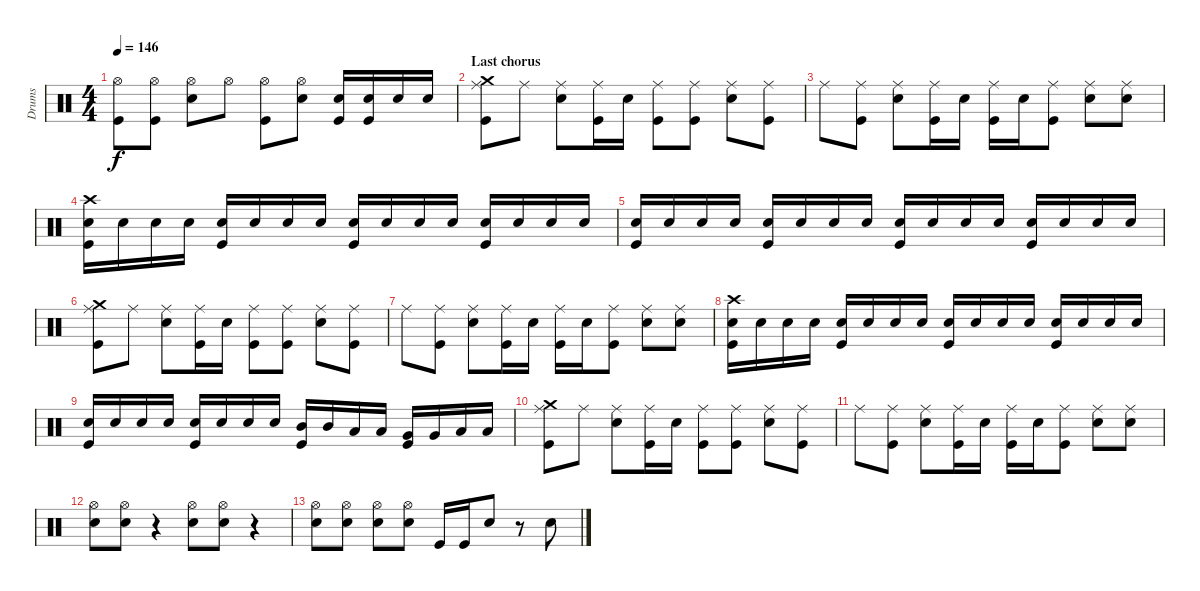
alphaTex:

\track ("Drums" "Drums") {instrument percussion}
\staff {score}
\articulation defaults
\ts (4 4)
\tempo 146
\clef neutral
\ks c
("Hi-Hat (open)" "Kick (hit)").8{dy f} ("Hi-Hat (open)" "Kick (hit)").8 ("Hi-Hat (open)" "Snare (hit) 2").8 "Hi-Hat (open)".8 ("Hi-Hat (open)" "Kick (hit)").8 ("Hi-Hat (open)" "Snare (hit) 2").8 ("Snare (hit) 2" "Kick (hit)").16 ("Snare (hit) 2" "Kick (hit)").16 "Snare (hit) 2".16 "Snare (hit) 2".16 |
\section ("" "Last chorus")
("Ride (middle)" "Crash medium (hit)" "Kick (hit)").8 "Ride (middle)".8 ("Ride (middle)" "Snare (hit) 2").8 ("Ride (middle)" "Kick (hit)").16 "Snare (hit) 2".16 ("Ride (middle)" "Kick (hit)").8 ("Ride (middle)" "Kick (hit)").8 ("Ride (middle)" "Snare (hit) 2").8 ("Ride (middle)" "Kick (hit)").8 |
"Ride (middle)".8 ("Ride (middle)" "Kick (hit)").8 ("Ride (middle)" "Snare (hit) 2").8 ("Ride (middle)" "Kick (hit)").16 "Snare (hit) 2".16 ("Ride (middle)" "Kick (hit)").16 "Snare (hit) 2".16 ("Ride (middle)" "Kick (hit)").8 ("Ride (middle)" "Snare (hit) 2").8 ("Ride (middle)" "Snare (hit) 2").8 |
("Crash high (hit)" "Snare (hit) 2" "Kick (hit)").16 "Snare (hit) 2".16 "Snare (hit) 2".16 "Snare (hit) 2".16 ("Snare (hit) 2" "Kick (hit)").16 "Snare (hit) 2".16 "Snare (hit) 2".16 "Snare (hit) 2".16 ("Snare (hit) 2" "Kick (hit)").16 "Snare (hit) 2".16 "Snare (hit) 2".16 "Snare (hit) 2".16 ("Snare (hit) 2" "Kick (hit)").16 "Snare (hit) 2".16 "Snare (hit) 2".16 "Snare (hit) 2".16 |
("Snare (hit) 2" "Kick (hit)").16 "Snare (hit) 2".16 "Snare (hit) 2".16 "Snare (hit) 2".16 ("Snare (hit) 2" "Kick (hit)").16 "Snare (hit) 2".16 "Snare (hit) 2".16 "Snare (hit) 2".16 ("Snare (hit) 2" "Kick (hit)").16 "Snare (hit) 2".16 "Snare (hit) 2".16 "Snare (hit) 2".16 ("Snare (hit) 2" "Kick (hit)").16 "Snare (hit) 2".16 "Snare (hit) 2".16 "Snare (hit) 2".16 |
("Ride (middle)" "Crash medium (hit)" "Kick (hit)").8 "Ride (middle)".8 ("Ride (middle)" "Snare (hit) 2").8 ("Ride (middle)" "Kick (hit)").16 "Snare (hit) 2".16 ("Ride (middle)" "Kick (hit)").8 ("Ride (middle)" "Kick (hit)").8 ("Ride (middle)" "Snare (hit) 2").8 ("Ride (middle)" "Kick (hit)").8 |
"Ride (middle)".8 ("Ride (middle)" "Kick (hit)").8 ("Ride (middle)" "Snare (hit) 2").8 ("Ride (middle)" "Kick (hit)").16 "Snare (hit) 2".16 ("Ride (middle)" "Kick (hit)").16 "Snare (hit) 2".16 ("Ride (middle)" "Kick (hit)").8 ("Ride (middle)" "Snare (hit) 2").8 ("Ride (middle)" "Snare (hit) 2").8 |
("Crash high (hit)" "Snare (hit) 2" "Kick (hit)").16 "Snare (hit) 2".16 "Snare (hit) 2".16 "Snare (hit) 2".16 ("Snare (hit) 2" "Kick (hit)").16 "Snare (hit) 2".16 "Snare (hit) 2".16 "Snare (hit) 2".16 ("Snare (hit) 2" "Kick (hit)").16 "Snare (hit) 2".16 "Snare (hit) 2".16 "Snare (hit) 2".16 ("Snare (hit) 2" "Kick (hit)").16 "Snare (hit) 2".16 "Snare (hit) 2".16 "Snare (hit) 2".16 |
("Snare (hit) 2" "Kick (hit)").16 "Snare (hit) 2".16 "Snare (hit) 2".16 "Snare (hit) 2".16 ("Snare (hit) 2" "Kick (hit)").16 "Snare (hit) 2".16 "Snare (hit) 2".16 "Snare (hit) 2".16 ("Mid Tom (hit)" "Kick (hit)").16 "Mid Tom (hit)".16 "Low Tom (hit)".16 "Low Tom (hit)".16 ("Very Low Tom (hit)" "Kick (hit)").16 "Very Low Tom (hit)".16 "Low Floor Tom (hit)".16 "Low Floor Tom (hit)".16 |
("Ride (middle)" "Crash medium (hit)" "Kick (hit)").8 "Ride (middle)".8 ("Ride (middle)" "Snare (hit) 2").8 ("Ride (middle)" "Kick (hit)").16 "Snare (hit) 2".16 ("Ride (middle)" "Kick (hit)").8 ("Ride (middle)" "Kick (hit)").8 ("Ride (middle)" "Snare (hit) 2").8 ("Ride (middle)" "Kick (hit)").8 |
"Ride (middle)".8 ("Ride (middle)" "Kick (hit)").8 ("Ride (middle)" "Snare (hit) 2").8 ("Ride (middle)" "Kick (hit)").16 "Snare (hit) 2".16 ("Ride (middle)" "Kick (hit)").16 "Snare (hit) 2".16 ("Ride (middle)" "Kick (hit)").8 ("Ride (middle)" "Snare (hit) 2").8 ("Ride (middle)" "Snare (hit) 2").8 |
("Hi-Hat (open)" "Snare (hit) 2").8 ("Hi-Hat (open)" "Snare (hit) 2").8 r.4 ("Hi-Hat (open)" "Snare (hit) 2").8 ("Hi-Hat (open)" "Snare (hit) 2").8 r.4 |
("Hi-Hat (open)" "Snare (hit) 2").8 ("Hi-Hat (open)" "Snare (hit) 2").8 ("Hi-Hat (open)" "Snare (hit) 2").8 ("Hi-Hat (open)" "Snare (hit) 2").8 "Kick (hit)".16 "Kick (hit)".16 "Snare (hit) 2".8 r.8 "Snare (hit) 2".8
